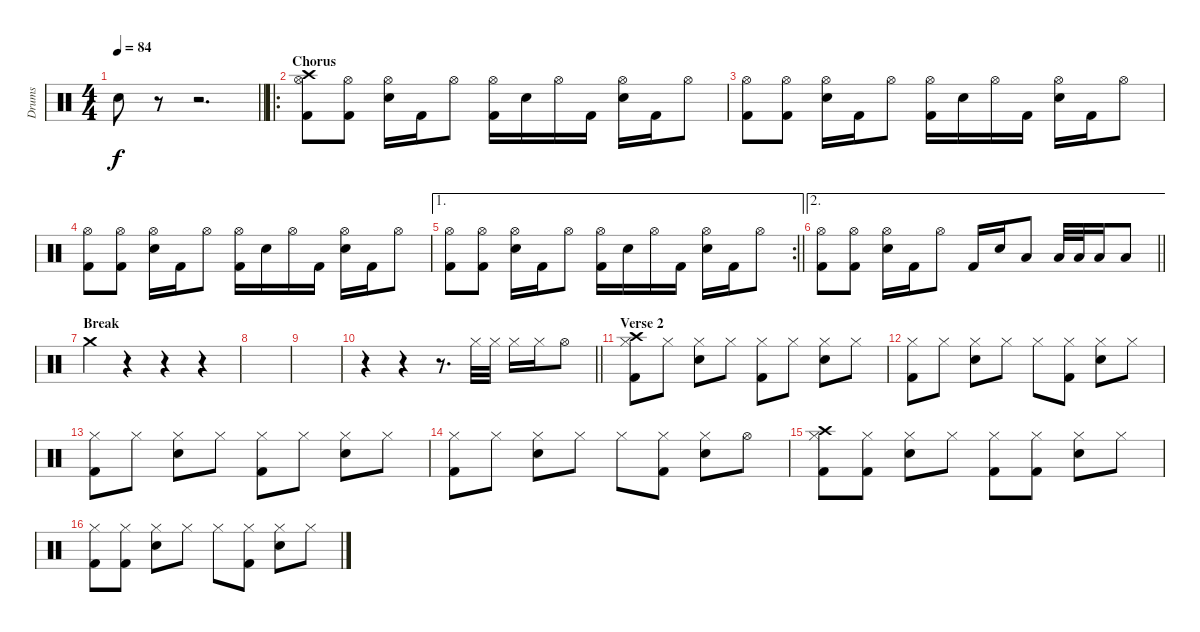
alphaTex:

\track ("Drums" "Drums") {instrument percussion}
\staff {score}
\articulation defaults
\ts (4 4)
\tempo 84
\clef neutral
\barLineRight lightlight
\ks c "Snare (hit) 2".8{dy f}
r.8 r.2{d} |
\ro
\section ("" "Chorus")
("Crash high (hit)" "Kick (hit) 2" "Hi-Hat (open)").8{volume 13} ("Kick (hit) 2" "Hi-Hat (open)").8 ("Snare (hit) 2" "Hi-Hat (open)").16 "Kick (hit) 2".16 "Hi-Hat (open)".8 ("Kick (hit) 2" "Hi-Hat (open)").16 "Snare (hit) 2".16 "Hi-Hat (open)".16 "Kick (hit) 2".16 ("Snare (hit) 2" "Hi-Hat (open)").16 "Kick (hit) 2".16 "Hi-Hat (open)".8 |
("Kick (hit) 2" "Hi-Hat (open)").8 ("Kick (hit) 2" "Hi-Hat (open)").8 ("Snare (hit) 2" "Hi-Hat (open)").16 "Kick (hit) 2".16 "Hi-Hat (open)".8 ("Kick (hit) 2" "Hi-Hat (open)").16 "Snare (hit) 2".16 "Hi-Hat (open)".16 "Kick (hit) 2".16 ("Snare (hit) 2" "Hi-Hat (open)").16 "Kick (hit) 2".16 "Hi-Hat (open)".8 |
("Kick (hit) 2" "Hi-Hat (open)").8 ("Kick (hit) 2" "Hi-Hat (open)").8 ("Snare (hit) 2" "Hi-Hat (open)").16 "Kick (hit) 2".16 "Hi-Hat (open)".8 ("Kick (hit) 2" "Hi-Hat (open)").16 "Snare (hit) 2".16 "Hi-Hat (open)".16 "Kick (hit) 2".16 ("Snare (hit) 2" "Hi-Hat (open)").16 "Kick (hit) 2".16 "Hi-Hat (open)".8 |
\ae 1
\rc 2
\barLineRight lightlight
("Kick (hit) 2" "Hi-Hat (open)").8 ("Kick (hit) 2" "Hi-Hat (open)").8 ("Snare (hit) 2" "Hi-Hat (open)").16 "Kick (hit) 2".16 "Hi-Hat (open)".8 ("Kick (hit) 2" "Hi-Hat (open)").16 "Snare (hit) 2".16 "Hi-Hat (open)".16 "Kick (hit) 2".16 ("Snare (hit) 2" "Hi-Hat (open)").16 "Kick (hit) 2".16 "Hi-Hat (open)".8 |
\ae 2
\barLineRight lightlight
("Kick (hit) 2" "Hi-Hat (open)").8 ("Kick (hit) 2" "Hi-Hat (open)").8 ("Snare (hit) 2" "Hi-Hat (open)").16 "Kick (hit) 2".16 "Hi-Hat (open)".8 "Kick (hit) 2".16 "Snare (hit) 2".16 "Low Tom (hit)".8 "Low Tom (hit)".32 "Low Tom (hit)".32 "Low Tom (hit)".16 "Low Tom (hit)".8 |
\section ("" "Break")
"Crash medium (hit)".4 r.4 r.4 r.4 |
|
|
\barLineRight lightlight
r.4 r.4 r.8{d} "Hi-Hat (closed)".32{volume 10} "Hi-Hat (closed)".32 "Hi-Hat (closed)".16 "Hi-Hat (closed)".16 "Hi-Hat (open)".8 |
\section ("" "Verse 2")
("Crash high (hit)" "Kick (hit) 2" "Hi-Hat (closed)").8 "Hi-Hat (closed)".8 ("Snare (hit) 2" "Hi-Hat (closed)").8 "Hi-Hat (closed)".8 ("Kick (hit) 2" "Hi-Hat (closed)").8 "Hi-Hat (closed)".8 ("Snare (hit) 2" "Hi-Hat (closed)").8 "Hi-Hat (closed)".8 |
("Kick (hit) 2" "Hi-Hat (closed)").8 "Hi-Hat (closed)".8 ("Snare (hit) 2" "Hi-Hat (closed)").8 "Hi-Hat (closed)".8 "Hi-Hat (closed)".8 ("Kick (hit) 2" "Hi-Hat (closed)").8 ("Snare (hit) 2" "Hi-Hat (closed)").8 "Hi-Hat (closed)".8 |
("Kick (hit) 2" "Hi-Hat (closed)").8 "Hi-Hat (closed)".8 ("Snare (hit) 2" "Hi-Hat (closed)").8 "Hi-Hat (closed)".8 ("Kick (hit) 2" "Hi-Hat (closed)").8 "Hi-Hat (closed)".8 ("Snare (hit) 2" "Hi-Hat (closed)").8 "Hi-Hat (closed)".8 |
("Kick (hit) 2" "Hi-Hat (closed)").8 "Hi-Hat (closed)".8 ("Snare (hit) 2" "Hi-Hat (closed)").8 "Hi-Hat (closed)".8 "Hi-Hat (closed)".8 ("Kick (hit) 2" "Hi-Hat (closed)").8 ("Snare (hit) 2" "Hi-Hat (closed)").8 "Hi-Hat (open)".8 |
("Crash high (hit)" "Kick (hit) 2" "Hi-Hat (closed)").8 ("Kick (hit) 2" "Hi-Hat (closed)").8 ("Snare (hit) 2" "Hi-Hat (closed)").8 "Hi-Hat (closed)".8 ("Kick (hit) 2" "Hi-Hat (closed)").8 ("Kick (hit) 2" "Hi-Hat (closed)").8 ("Snare (hit) 2" "Hi-Hat (closed)").8 "Hi-Hat (closed)".8 |
("Kick (hit) 2" "Hi-Hat (closed)").8 ("Kick (hit) 2" "Hi-Hat (closed)").8 ("Snare (hit) 2" "Hi-Hat (closed)").8 "Hi-Hat (closed)".8 "Hi-Hat (closed)".8 ("Kick (hit) 2" "Hi-Hat (closed)").8 ("Snare (hit) 2" "Hi-Hat (closed)").8 "Hi-Hat (closed)".8
